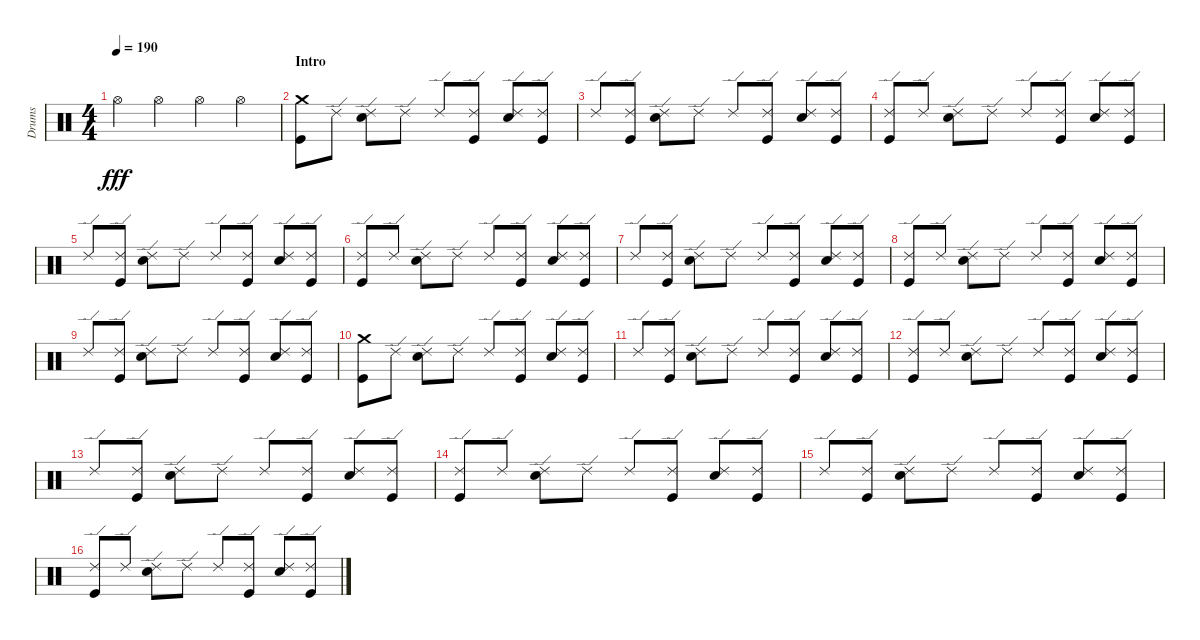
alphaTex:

\track ("Drums" "Drums") {instrument percussion}
\staff {score}
\articulation defaults
\ts (4 4)
\tempo 190
\clef neutral
\ks c "Hi-Hat (open)".4{dy fff} "Hi-Hat (open)".4 "Hi-Hat (open)".4 "Hi-Hat (open)".4
|
\section ("" "Intro")
("Crash medium (hit)" "Kick (hit)").8 "Ride (edge) 2".8 ("Ride (edge) 2" "Snare (hit) 2").8 "Ride (edge) 2".8 "Ride (edge) 2".8 ("Ride (edge) 2" "Kick (hit)").8 ("Ride (edge) 2" "Snare (hit) 2").8 ("Ride (edge) 2" "Kick (hit)").8 |
"Ride (edge) 2".8 ("Ride (edge) 2" "Kick (hit)").8 ("Ride (edge) 2" "Snare (hit) 2").8 "Ride (edge) 2".8 "Ride (edge) 2".8 ("Ride (edge) 2" "Kick (hit)").8 ("Ride (edge) 2" "Snare (hit) 2").8 ("Ride (edge) 2" "Kick (hit)").8 |
("Ride (edge) 2" "Kick (hit)").8 "Ride (edge) 2".8 ("Ride (edge) 2" "Snare (hit) 2").8 "Ride (edge) 2".8 "Ride (edge) 2".8 ("Ride (edge) 2" "Kick (hit)").8 ("Ride (edge) 2" "Snare (hit) 2").8 ("Ride (edge) 2" "Kick (hit)").8 |
"Ride (edge) 2".8 ("Ride (edge) 2" "Kick (hit)").8 ("Ride (edge) 2" "Snare (hit) 2").8 "Ride (edge) 2".8 "Ride (edge) 2".8 ("Ride (edge) 2" "Kick (hit)").8 ("Ride (edge) 2" "Snare (hit) 2").8 ("Ride (edge) 2" "Kick (hit)").8 |
("Ride (edge) 2" "Kick (hit)").8 "Ride (edge) 2".8 ("Ride (edge) 2" "Snare (hit) 2").8 "Ride (edge) 2".8 "Ride (edge) 2".8 ("Ride (edge) 2" "Kick (hit)").8 ("Ride (edge) 2" "Snare (hit) 2").8 ("Ride (edge) 2" "Kick (hit)").8 |
"Ride (edge) 2".8 ("Ride (edge) 2" "Kick (hit)").8 ("Ride (edge) 2" "Snare (hit) 2").8 "Ride (edge) 2".8 "Ride (edge) 2".8 ("Ride (edge) 2" "Kick (hit)").8 ("Ride (edge) 2" "Snare (hit) 2").8 ("Ride (edge) 2" "Kick (hit)").8 |
("Ride (edge) 2" "Kick (hit)").8 "Ride (edge) 2".8 ("Ride (edge) 2" "Snare (hit) 2").8 "Ride (edge) 2".8 "Ride (edge) 2".8 ("Ride (edge) 2" "Kick (hit)").8 ("Ride (edge) 2" "Snare (hit) 2").8 ("Ride (edge) 2" "Kick (hit)").8 |
"Ride (edge) 2".8 ("Ride (edge) 2" "Kick (hit)").8 ("Ride (edge) 2" "Snare (hit) 2").8 "Ride (edge) 2".8 "Ride (edge) 2".8 ("Ride (edge) 2" "Kick (hit)").8 ("Ride (edge) 2" "Snare (hit) 2").8 ("Ride (edge) 2" "Kick (hit)").8 |
("Crash medium (hit)" "Kick (hit)").8 "Ride (edge) 2".8 ("Ride (edge) 2" "Snare (hit) 2").8 "Ride (edge) 2".8 "Ride (edge) 2".8 ("Ride (edge) 2" "Kick (hit)").8 ("Ride (edge) 2" "Snare (hit) 2").8 ("Ride (edge) 2" "Kick (hit)").8 |
"Ride (edge) 2".8 ("Ride (edge) 2" "Kick (hit)").8 ("Ride (edge) 2" "Snare (hit) 2").8 "Ride (edge) 2".8 "Ride (edge) 2".8 ("Ride (edge) 2" "Kick (hit)").8 ("Ride (edge) 2" "Snare (hit) 2").8 ("Ride (edge) 2" "Kick (hit)").8 |
("Ride (edge) 2" "Kick (hit)").8 "Ride (edge) 2".8 ("Ride (edge) 2" "Snare (hit) 2").8 "Ride (edge) 2".8 "Ride (edge) 2".8 ("Ride (edge) 2" "Kick (hit)").8 ("Ride (edge) 2" "Snare (hit) 2").8 ("Ride (edge) 2" "Kick (hit)").8 |
"Ride (edge) 2".8 ("Ride (edge) 2" "Kick (hit)").8 ("Ride (edge) 2" "Snare (hit) 2").8 "Ride (edge) 2".8 "Ride (edge) 2".8 ("Ride (edge) 2" "Kick (hit)").8 ("Ride (edge) 2" "Snare (hit) 2").8 ("Ride (edge) 2" "Kick (hit)").8 |
("Ride (edge) 2" "Kick (hit)").8 "Ride (edge) 2".8 ("Ride (edge) 2" "Snare (hit) 2").8 "Ride (edge) 2".8 "Ride (edge) 2".8 ("Ride (edge) 2" "Kick (hit)").8 ("Ride (edge) 2" "Snare (hit) 2").8 ("Ride (edge) 2" "Kick (hit)").8 |
"Ride (edge) 2".8 ("Ride (edge) 2" "Kick (hit)").8 ("Ride (edge) 2" "Snare (hit) 2").8 "Ride (edge) 2".8 "Ride (edge) 2".8 ("Ride (edge) 2" "Kick (hit)").8 ("Ride (edge) 2" "Snare (hit) 2").8 ("Ride (edge) 2" "Kick (hit)").8 |
("Ride (edge) 2" "Kick (hit)").8 "Ride (edge) 2".8 ("Ride (edge) 2" "Snare (hit) 2").8 "Ride (edge) 2".8 "Ride (edge) 2".8 ("Ride (edge) 2" "Kick (hit)").8 ("Ride (edge) 2" "Snare (hit) 2").8 ("Ride (edge) 2" "Kick (hit)").8
